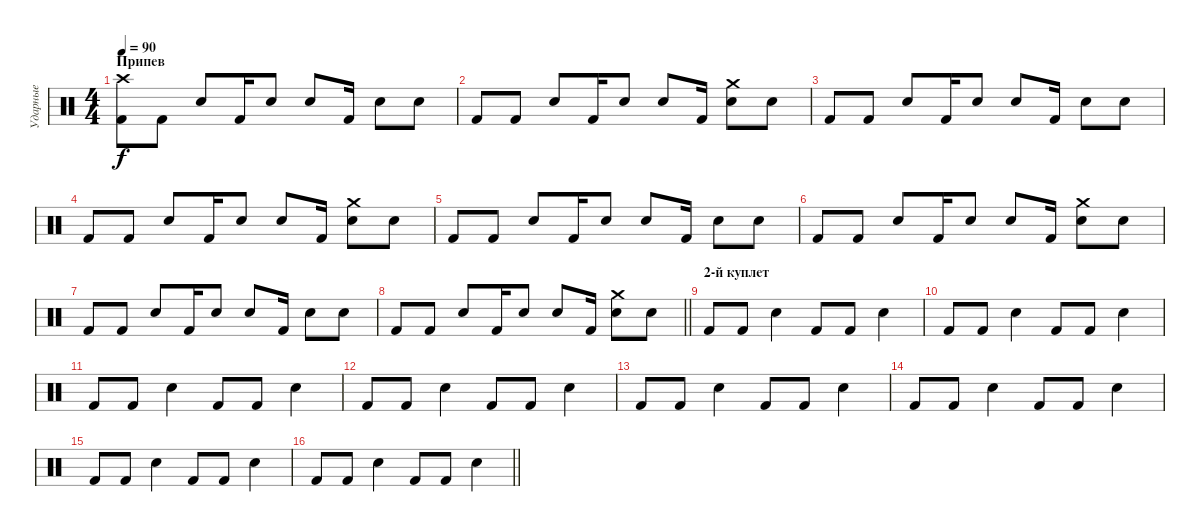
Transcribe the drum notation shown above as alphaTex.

\track ("Ударные" "Ударные") {instrument percussion}
\staff {score}
\articulation defaults
\ts (4 4)
\section ("" "Припев")
\tempo 90
\clef neutral
\ks c
("Crash high (hit)" "Kick (hit) 2").8{dy f} "Kick (hit) 2".8 "Snare (hit) 2".8 "Kick (hit) 2".16 "Snare (hit) 2".8 "Snare (hit) 2".8 "Kick (hit) 2".16 "Snare (hit) 2".8 "Snare (hit)".8 |
"Kick (hit) 2".8 "Kick (hit) 2".8 "Snare (hit) 2".8 "Kick (hit) 2".16 "Snare (hit) 2".8 "Snare (hit) 2".8 "Kick (hit) 2".16 ("Crash medium (hit)" "Snare (hit) 2").8 "Snare (hit)".8 |
"Kick (hit) 2".8 "Kick (hit) 2".8 "Snare (hit) 2".8 "Kick (hit) 2".16 "Snare (hit) 2".8 "Snare (hit) 2".8 "Kick (hit) 2".16 "Snare (hit) 2".8 "Snare (hit)".8 |
"Kick (hit) 2".8 "Kick (hit) 2".8 "Snare (hit) 2".8 "Kick (hit) 2".16 "Snare (hit) 2".8 "Snare (hit) 2".8 "Kick (hit) 2".16 ("Crash medium (hit)" "Snare (hit) 2").8 "Snare (hit)".8 |
"Kick (hit) 2".8 "Kick (hit) 2".8 "Snare (hit) 2".8 "Kick (hit) 2".16 "Snare (hit) 2".8 "Snare (hit) 2".8 "Kick (hit) 2".16 "Snare (hit) 2".8 "Snare (hit)".8 |
"Kick (hit) 2".8 "Kick (hit) 2".8 "Snare (hit) 2".8 "Kick (hit) 2".16 "Snare (hit) 2".8 "Snare (hit) 2".8 "Kick (hit) 2".16 ("Crash medium (hit)" "Snare (hit) 2").8 "Snare (hit)".8 |
"Kick (hit) 2".8 "Kick (hit) 2".8 "Snare (hit) 2".8 "Kick (hit) 2".16 "Snare (hit) 2".8 "Snare (hit) 2".8 "Kick (hit) 2".16 "Snare (hit) 2".8 "Snare (hit)".8 |
\barLineRight lightlight "Kick (hit) 2".8 "Kick (hit) 2".8 "Snare (hit) 2".8 "Kick (hit) 2".16 "Snare (hit) 2".8 "Snare (hit) 2".8 "Kick (hit) 2".16
("Crash medium (hit)" "Snare (hit) 2").8 "Snare (hit)".8 |
\section ("" "2-й куплет")
"Kick (hit) 2".8 "Kick (hit) 2".8 "Electric Snare (hit)".4 "Kick (hit) 2".8 "Kick (hit) 2".8 "Electric Snare (hit)".4 |
"Kick (hit) 2".8 "Kick (hit) 2".8 "Electric Snare (hit)".4 "Kick (hit) 2".8 "Kick (hit) 2".8 "Electric Snare (hit)".4 |
"Kick (hit) 2".8 "Kick (hit) 2".8 "Electric Snare (hit)".4 "Kick (hit) 2".8 "Kick (hit) 2".8 "Electric Snare (hit)".4 |
"Kick (hit) 2".8 "Kick (hit) 2".8 "Electric Snare (hit)".4 "Kick (hit) 2".8 "Kick (hit) 2".8 "Electric Snare (hit)".4 |
"Kick (hit) 2".8 "Kick (hit) 2".8 "Electric Snare (hit)".4 "Kick (hit) 2".8 "Kick (hit) 2".8 "Electric Snare (hit)".4 |
"Kick (hit) 2".8 "Kick (hit) 2".8 "Electric Snare (hit)".4 "Kick (hit) 2".8 "Kick (hit) 2".8 "Electric Snare (hit)".4 |
"Kick (hit) 2".8 "Kick (hit) 2".8 "Electric Snare (hit)".4 "Kick (hit) 2".8 "Kick (hit) 2".8 "Electric Snare (hit)".4 |
\barLineRight lightlight "Kick (hit) 2".8 "Kick (hit) 2".8 "Electric Snare (hit)".4 "Kick (hit) 2".8 "Kick (hit) 2".8 "Electric Snare (hit)".4
